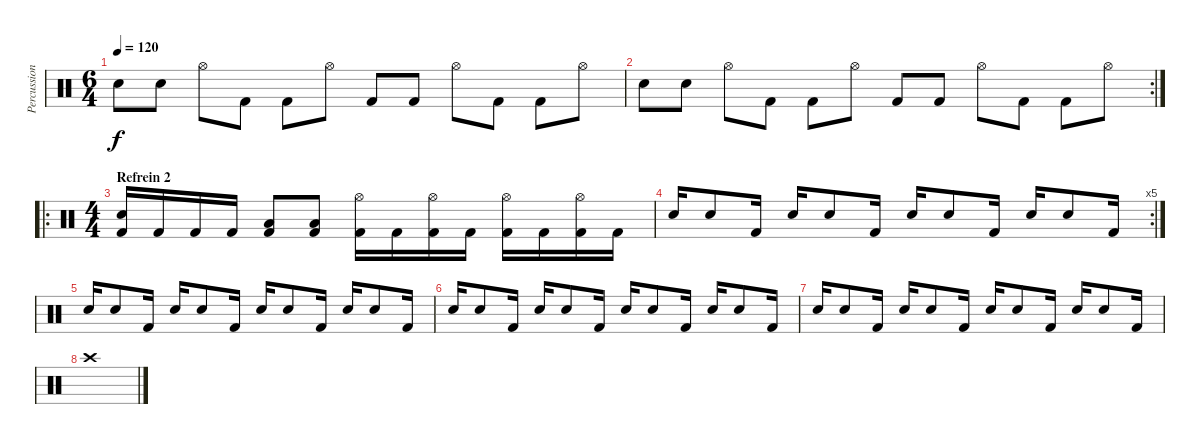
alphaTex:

\track ("Percussion" "Percussion") {instrument percussion}
\staff {score}
\articulation defaults
\ts (6 4)
\tempo 120
\clef neutral
\ks c "Electric Snare (hit)".8{dy f} "Electric Snare (hit)".8 "Hi-Hat (open)".8 "Kick (hit) 2".8 "Kick (hit) 2".8 "Hi-Hat (open)".8 "Kick (hit) 2".8 "Kick (hit) 2".8 "Hi-Hat (open)".8 "Kick (hit) 2".8 "Kick (hit) 2".8 "Hi-Hat (open)".8
|
\rc 2 "Electric Snare (hit)".8 "Electric Snare (hit)".8 "Hi-Hat (open)".8 "Kick (hit) 2".8 "Kick (hit) 2".8 "Hi-Hat (open)".8 "Kick (hit) 2".8 "Kick (hit) 2".8 "Hi-Hat (open)".8 "Kick (hit) 2".8 "Kick (hit) 2".8 "Hi-Hat (open)".8
|
\ro
\ts (4 4)
\section ("" "Refrein 2")
("Electric Snare (hit)" "Kick (hit) 2").16 "Kick (hit) 2".16 "Kick (hit) 2".16 "Kick (hit) 2".16 ("Low Floor Tom (hit)" "Kick (hit) 2").8 ("Low Floor Tom (hit)" "Kick (hit) 2").8 ("Hi-Hat (open)" "Kick (hit) 2").16 "Kick (hit) 2".16 ("Hi-Hat (open)" "Kick (hit) 2").16 "Kick (hit) 2".16 ("Hi-Hat (open)" "Kick (hit) 2").16 "Kick (hit) 2".16 ("Hi-Hat (open)" "Kick (hit) 2").16 "Kick (hit) 2".16 |
\rc 5 "Electric Snare (hit)".16 "Electric Snare (hit)".8 "Kick (hit) 2".16 "Electric Snare (hit)".16 "Electric Snare (hit)".8 "Kick (hit) 2".16 "Electric Snare (hit)".16 "Electric Snare (hit)".8 "Kick (hit) 2".16 "Electric Snare (hit)".16 "Electric Snare (hit)".8 "Kick (hit) 2".16
|
"Electric Snare (hit)".16 "Electric Snare (hit)".8 "Kick (hit) 2".16 "Electric Snare (hit)".16 "Electric Snare (hit)".8 "Kick (hit) 2".16 "Electric Snare (hit)".16 "Electric Snare (hit)".8 "Kick (hit) 2".16 "Electric Snare (hit)".16 "Electric Snare (hit)".8 "Kick (hit) 2".16 |
"Electric Snare (hit)".16 "Electric Snare (hit)".8 "Kick (hit) 2".16 "Electric Snare (hit)".16 "Electric Snare (hit)".8 "Kick (hit) 2".16 "Electric Snare (hit)".16 "Electric Snare (hit)".8 "Kick (hit) 2".16 "Electric Snare (hit)".16 "Electric Snare (hit)".8 "Kick (hit) 2".16 |
"Electric Snare (hit)".16 "Electric Snare (hit)".8 "Kick (hit) 2".16 "Electric Snare (hit)".16 "Electric Snare (hit)".8 "Kick (hit) 2".16 "Electric Snare (hit)".16 "Electric Snare (hit)".8 "Kick (hit) 2".16 "Electric Snare (hit)".16 "Electric Snare (hit)".8 "Kick (hit) 2".16 |
"Crash high (hit)".1
